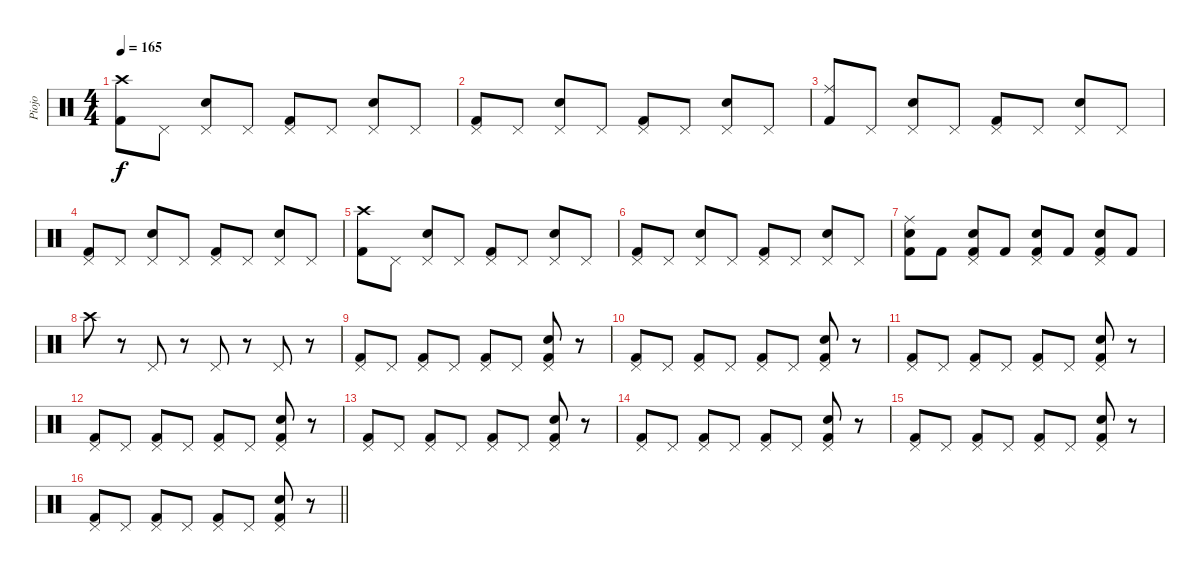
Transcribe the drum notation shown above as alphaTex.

\track ("Piojo" "Piojo") {instrument percussion}
\staff {score}
\articulation defaults
\ts (4 4)
\tempo 165
\clef neutral
\ks c
("Crash high (hit)" "Kick (hit) 2").8{dy f} "Pedal Hi-Hat (hit)".8 ("Pedal Hi-Hat (hit)" "Electric Snare (hit)").8 "Pedal Hi-Hat (hit)".8 ("Pedal Hi-Hat (hit)" "Kick (hit) 2").8 "Pedal Hi-Hat (hit)".8 ("Pedal Hi-Hat (hit)" "Electric Snare (hit)").8 "Pedal Hi-Hat (hit)".8 |
("Pedal Hi-Hat (hit)" "Kick (hit) 2").8 "Pedal Hi-Hat (hit)".8 ("Pedal Hi-Hat (hit)" "Electric Snare (hit)").8 "Pedal Hi-Hat (hit)".8 ("Pedal Hi-Hat (hit)" "Kick (hit) 2").8 "Pedal Hi-Hat (hit)".8 ("Pedal Hi-Hat (hit)" "Electric Snare (hit)").8 "Pedal Hi-Hat (hit)".8 |
("Ride (middle)" "Kick (hit) 2").8 "Pedal Hi-Hat (hit)".8 ("Pedal Hi-Hat (hit)" "Electric Snare (hit)").8 "Pedal Hi-Hat (hit)".8 ("Pedal Hi-Hat (hit)" "Kick (hit) 2").8 "Pedal Hi-Hat (hit)".8 ("Pedal Hi-Hat (hit)" "Electric Snare (hit)").8 "Pedal Hi-Hat (hit)".8 |
("Pedal Hi-Hat (hit)" "Kick (hit) 2").8 "Pedal Hi-Hat (hit)".8 ("Pedal Hi-Hat (hit)" "Electric Snare (hit)").8 "Pedal Hi-Hat (hit)".8 ("Pedal Hi-Hat (hit)" "Kick (hit) 2").8 "Pedal Hi-Hat (hit)".8 ("Pedal Hi-Hat (hit)" "Electric Snare (hit)").8 "Pedal Hi-Hat (hit)".8 |
("Crash high (hit)" "Kick (hit) 2").8 "Pedal Hi-Hat (hit)".8 ("Pedal Hi-Hat (hit)" "Electric Snare (hit)").8 "Pedal Hi-Hat (hit)".8 ("Pedal Hi-Hat (hit)" "Kick (hit) 2").8 "Pedal Hi-Hat (hit)".8 ("Pedal Hi-Hat (hit)" "Electric Snare (hit)").8 "Pedal Hi-Hat (hit)".8 |
("Pedal Hi-Hat (hit)" "Kick (hit) 2").8 "Pedal Hi-Hat (hit)".8 ("Pedal Hi-Hat (hit)" "Electric Snare (hit)").8 "Pedal Hi-Hat (hit)".8 ("Pedal Hi-Hat (hit)" "Kick (hit) 2").8 "Pedal Hi-Hat (hit)".8 ("Pedal Hi-Hat (hit)" "Electric Snare (hit)").8 "Pedal Hi-Hat (hit)".8 |
("Ride (middle)" "Electric Snare (hit)" "Kick (hit) 2").8 "Kick (hit) 2".8 ("Pedal Hi-Hat (hit)" "Electric Snare (hit)" "Kick (hit) 2").8 "Kick (hit) 2".8 ("Pedal Hi-Hat (hit)" "Electric Snare (hit)" "Kick (hit) 2").8 "Kick (hit) 2".8 ("Pedal Hi-Hat (hit)" "Electric Snare (hit)" "Kick (hit) 2").8 "Kick (hit) 2".8 |
"Crash high (hit)".8 r.8 "Pedal Hi-Hat (hit)".8 r.8 "Pedal Hi-Hat (hit)".8 r.8 "Pedal Hi-Hat (hit)".8 r.8 |
("Pedal Hi-Hat (hit)" "Kick (hit) 2").8 "Pedal Hi-Hat (hit)".8 ("Pedal Hi-Hat (hit)" "Kick (hit) 2").8 "Pedal Hi-Hat (hit)".8 ("Pedal Hi-Hat (hit)" "Kick (hit) 2").8 "Pedal Hi-Hat (hit)".8 ("Pedal Hi-Hat (hit)" "Electric Snare (hit)" "Kick (hit) 2").8 r.8 |
("Pedal Hi-Hat (hit)" "Kick (hit) 2").8 "Pedal Hi-Hat (hit)".8 ("Pedal Hi-Hat (hit)" "Kick (hit) 2").8 "Pedal Hi-Hat (hit)".8 ("Pedal Hi-Hat (hit)" "Kick (hit) 2").8 "Pedal Hi-Hat (hit)".8 ("Pedal Hi-Hat (hit)" "Electric Snare (hit)" "Kick (hit) 2").8 r.8 |
("Pedal Hi-Hat (hit)" "Kick (hit) 2").8 "Pedal Hi-Hat (hit)".8 ("Pedal Hi-Hat (hit)" "Kick (hit) 2").8 "Pedal Hi-Hat (hit)".8 ("Pedal Hi-Hat (hit)" "Kick (hit) 2").8 "Pedal Hi-Hat (hit)".8 ("Pedal Hi-Hat (hit)" "Electric Snare (hit)" "Kick (hit) 2").8 r.8 |
("Pedal Hi-Hat (hit)" "Kick (hit) 2").8 "Pedal Hi-Hat (hit)".8 ("Pedal Hi-Hat (hit)" "Kick (hit) 2").8 "Pedal Hi-Hat (hit)".8 ("Pedal Hi-Hat (hit)" "Kick (hit) 2").8 "Pedal Hi-Hat (hit)".8 ("Pedal Hi-Hat (hit)" "Electric Snare (hit)" "Kick (hit) 2").8 r.8 |
("Pedal Hi-Hat (hit)" "Kick (hit) 2").8 "Pedal Hi-Hat (hit)".8 ("Pedal Hi-Hat (hit)" "Kick (hit) 2").8 "Pedal Hi-Hat (hit)".8 ("Pedal Hi-Hat (hit)" "Kick (hit) 2").8 "Pedal Hi-Hat (hit)".8 ("Pedal Hi-Hat (hit)" "Electric Snare (hit)" "Kick (hit) 2").8 r.8 |
("Pedal Hi-Hat (hit)" "Kick (hit) 2").8 "Pedal Hi-Hat (hit)".8 ("Pedal Hi-Hat (hit)" "Kick (hit) 2").8 "Pedal Hi-Hat (hit)".8 ("Pedal Hi-Hat (hit)" "Kick (hit) 2").8 "Pedal Hi-Hat (hit)".8 ("Pedal Hi-Hat (hit)" "Electric Snare (hit)" "Kick (hit) 2").8 r.8 |
("Pedal Hi-Hat (hit)" "Kick (hit) 2").8 "Pedal Hi-Hat (hit)".8 ("Pedal Hi-Hat (hit)" "Kick (hit) 2").8 "Pedal Hi-Hat (hit)".8 ("Pedal Hi-Hat (hit)" "Kick (hit) 2").8 "Pedal Hi-Hat (hit)".8 ("Pedal Hi-Hat (hit)" "Electric Snare (hit)" "Kick (hit) 2").8 r.8 |
\barLineRight lightlight
("Pedal Hi-Hat (hit)" "Kick (hit) 2").8 "Pedal Hi-Hat (hit)".8 ("Pedal Hi-Hat (hit)" "Kick (hit) 2").8 "Pedal Hi-Hat (hit)".8 ("Pedal Hi-Hat (hit)" "Kick (hit) 2").8 "Pedal Hi-Hat (hit)".8 ("Pedal Hi-Hat (hit)" "Electric Snare (hit)" "Kick (hit) 2").8 r.8
